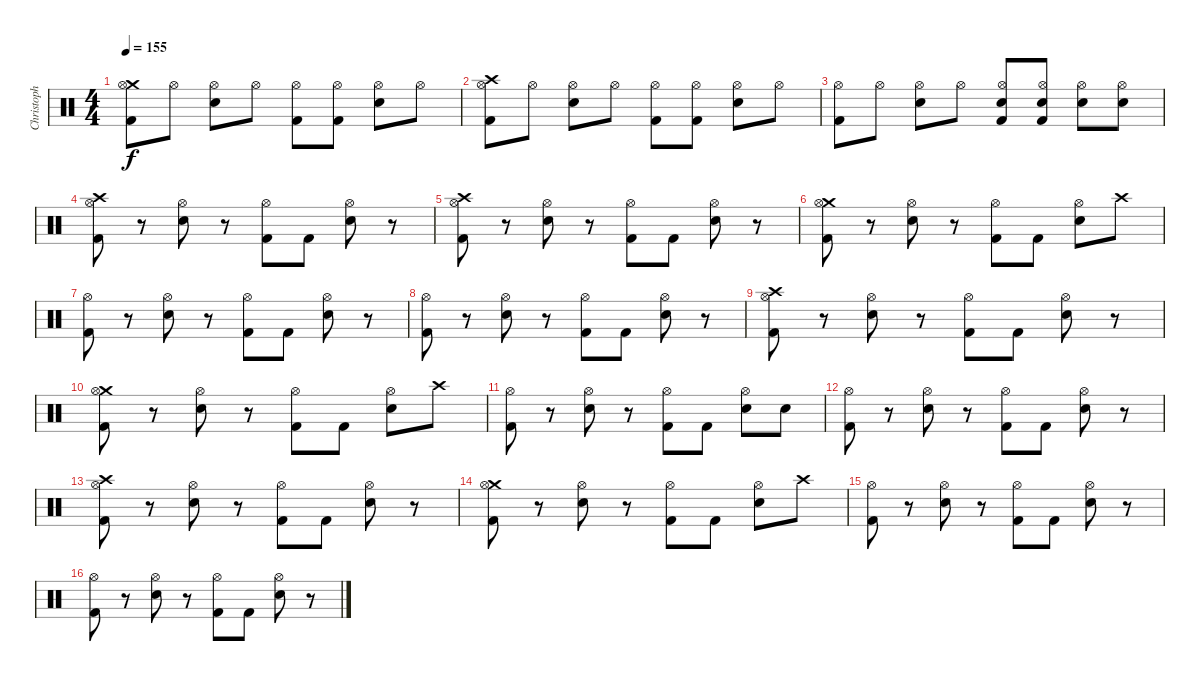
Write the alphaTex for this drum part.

\track ("Christoph \"Doom\" Schneider" "Christoph ") {instrument percussion}
\staff {score}
\articulation defaults
\ts (4 4)
\tempo 155
\clef neutral
\ks c
("Kick (hit) 2" "Crash medium (hit)" "Hi-Hat (open)").8{dy f} "Hi-Hat (open)".8 ("Electric Snare (hit)" "Hi-Hat (open)").8 "Hi-Hat (open)".8 ("Kick (hit) 2" "Hi-Hat (open)").8 ("Kick (hit) 2" "Hi-Hat (open)").8 ("Electric Snare (hit)" "Hi-Hat (open)").8 "Hi-Hat (open)".8 |
("Kick (hit) 2" "Crash high (hit)" "Hi-Hat (open)").8 "Hi-Hat (open)".8 ("Electric Snare (hit)" "Hi-Hat (open)").8 "Hi-Hat (open)".8 ("Kick (hit) 2" "Hi-Hat (open)").8 ("Kick (hit) 2" "Hi-Hat (open)").8 ("Electric Snare (hit)" "Hi-Hat (open)").8 "Hi-Hat (open)".8 |
("Kick (hit) 2" "Hi-Hat (open)").8 "Hi-Hat (open)".8 ("Electric Snare (hit)" "Hi-Hat (open)").8 "Hi-Hat (open)".8 ("Kick (hit) 2" "Electric Snare (hit)" "Hi-Hat (open)").8 ("Kick (hit) 2" "Electric Snare (hit)" "Hi-Hat (open)").8 ("Electric Snare (hit)" "Hi-Hat (open)").8 ("Electric Snare (hit)" "Hi-Hat (open)").8 |
("Kick (hit) 2" "Crash high (hit)" "Hi-Hat (open)").8 r.8 ("Electric Snare (hit)" "Hi-Hat (open)").8 r.8 ("Kick (hit) 2" "Hi-Hat (open)").8 "Kick (hit) 2".8 ("Electric Snare (hit)" "Hi-Hat (open)").8 r.8 |
("Kick (hit) 2" "Crash high (hit)" "Hi-Hat (open)").8 r.8 ("Electric Snare (hit)" "Hi-Hat (open)").8 r.8 ("Kick (hit) 2" "Hi-Hat (open)").8 "Kick (hit) 2".8 ("Electric Snare (hit)" "Hi-Hat (open)").8 r.8 |
("Kick (hit) 2" "Crash medium (hit)" "Hi-Hat (open)").8 r.8 ("Electric Snare (hit)" "Hi-Hat (open)").8 r.8 ("Kick (hit) 2" "Hi-Hat (open)").8 "Kick (hit) 2".8 ("Electric Snare (hit)" "Hi-Hat (open)").8 "Crash high (hit)".8 |
("Kick (hit) 2" "Hi-Hat (open)").8 r.8 ("Electric Snare (hit)" "Hi-Hat (open)").8 r.8 ("Kick (hit) 2" "Hi-Hat (open)").8 "Kick (hit) 2".8 ("Electric Snare (hit)" "Hi-Hat (open)").8 r.8 |
("Kick (hit) 2" "Hi-Hat (open)").8 r.8 ("Electric Snare (hit)" "Hi-Hat (open)").8 r.8 ("Kick (hit) 2" "Hi-Hat (open)").8 "Kick (hit) 2".8 ("Electric Snare (hit)" "Hi-Hat (open)").8 r.8 |
("Kick (hit) 2" "Crash high (hit)" "Hi-Hat (open)").8 r.8 ("Electric Snare (hit)" "Hi-Hat (open)").8 r.8 ("Kick (hit) 2" "Hi-Hat (open)").8 "Kick (hit) 2".8 ("Electric Snare (hit)" "Hi-Hat (open)").8 r.8 |
("Kick (hit) 2" "Crash medium (hit)" "Hi-Hat (open)").8 r.8 ("Electric Snare (hit)" "Hi-Hat (open)").8 r.8 ("Kick (hit) 2" "Hi-Hat (open)").8 "Kick (hit) 2".8 ("Electric Snare (hit)" "Hi-Hat (open)").8 "Crash high (hit)".8 |
("Kick (hit) 2" "Hi-Hat (open)").8 r.8 ("Electric Snare (hit)" "Hi-Hat (open)").8 r.8 ("Kick (hit) 2" "Hi-Hat (open)").8 "Kick (hit) 2".8 ("Electric Snare (hit)" "Hi-Hat (open)").8 "Electric Snare (hit)".8 |
("Kick (hit) 2" "Hi-Hat (open)").8 r.8 ("Electric Snare (hit)" "Hi-Hat (open)").8 r.8 ("Kick (hit) 2" "Hi-Hat (open)").8 "Kick (hit) 2".8 ("Electric Snare (hit)" "Hi-Hat (open)").8 r.8 |
("Kick (hit) 2" "Crash high (hit)" "Hi-Hat (open)").8 r.8 ("Electric Snare (hit)" "Hi-Hat (open)").8 r.8 ("Kick (hit) 2" "Hi-Hat (open)").8 "Kick (hit) 2".8 ("Electric Snare (hit)" "Hi-Hat (open)").8 r.8 |
("Kick (hit) 2" "Crash medium (hit)" "Hi-Hat (open)").8 r.8 ("Electric Snare (hit)" "Hi-Hat (open)").8 r.8 ("Kick (hit) 2" "Hi-Hat (open)").8 "Kick (hit) 2".8 ("Electric Snare (hit)" "Hi-Hat (open)").8 "Crash high (hit)".8 |
("Kick (hit) 2" "Hi-Hat (open)").8 r.8 ("Electric Snare (hit)" "Hi-Hat (open)").8 r.8 ("Kick (hit) 2" "Hi-Hat (open)").8 "Kick (hit) 2".8 ("Electric Snare (hit)" "Hi-Hat (open)").8 r.8 |
("Kick (hit) 2" "Hi-Hat (open)").8 r.8 ("Electric Snare (hit)" "Hi-Hat (open)").8 r.8 ("Kick (hit) 2" "Hi-Hat (open)").8 "Kick (hit) 2".8 ("Electric Snare (hit)" "Hi-Hat (open)").8 r.8
